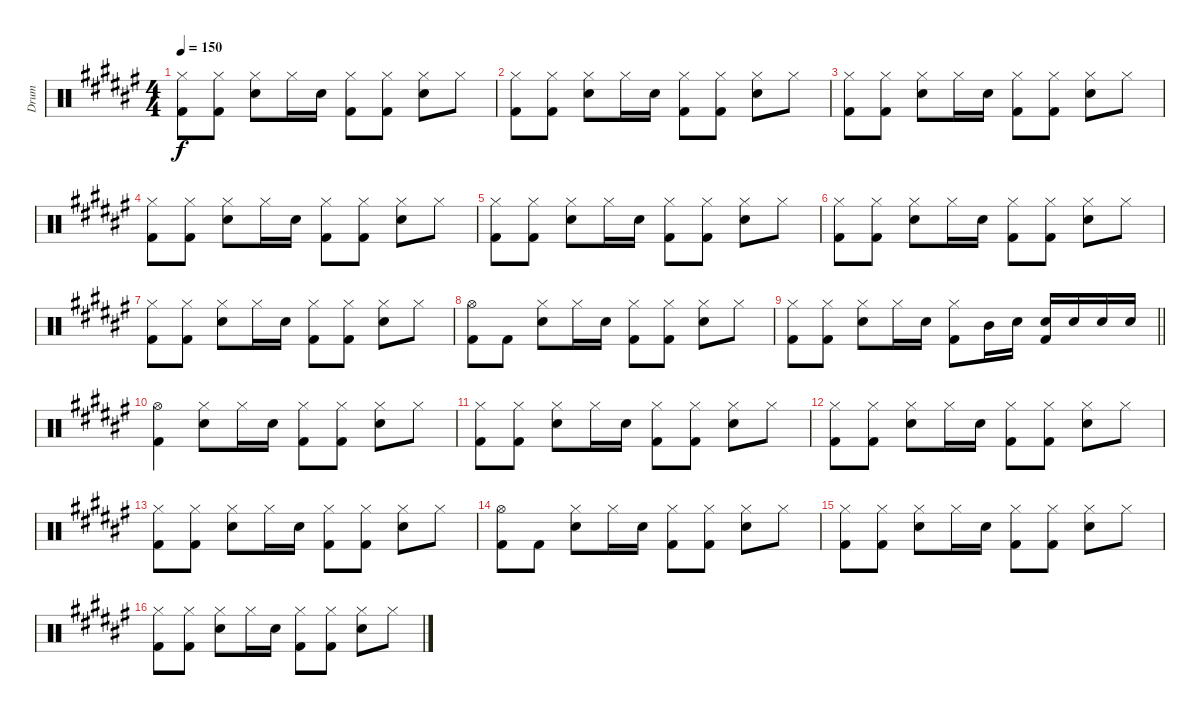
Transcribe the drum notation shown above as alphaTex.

\track ("Drum" "Drum") {instrument percussion}
\staff {score}
\articulation defaults
\ts (4 4)
\tempo 150
\clef neutral
\ks d#minor
("Hi-Hat (closed)" "Kick (hit) 2").8{dy f} ("Hi-Hat (closed)" "Kick (hit) 2").8 ("Hi-Hat (closed)" "Snare (hit) 2").8 "Hi-Hat (closed)".16 "Snare (hit) 2".16 ("Hi-Hat (closed)" "Kick (hit) 2").8 ("Hi-Hat (closed)" "Kick (hit) 2").8 ("Hi-Hat (closed)" "Snare (hit) 2").8 "Hi-Hat (closed)".8 |
("Hi-Hat (closed)" "Kick (hit) 2").8 ("Hi-Hat (closed)" "Kick (hit) 2").8 ("Hi-Hat (closed)" "Snare (hit) 2").8 "Hi-Hat (closed)".16 "Snare (hit) 2".16 ("Hi-Hat (closed)" "Kick (hit) 2").8 ("Hi-Hat (closed)" "Kick (hit) 2").8 ("Hi-Hat (closed)" "Snare (hit) 2").8 "Hi-Hat (closed)".8 |
("Hi-Hat (closed)" "Kick (hit) 2").8 ("Hi-Hat (closed)" "Kick (hit) 2").8 ("Hi-Hat (closed)" "Snare (hit) 2").8 "Hi-Hat (closed)".16 "Snare (hit) 2".16 ("Hi-Hat (closed)" "Kick (hit) 2").8 ("Hi-Hat (closed)" "Kick (hit) 2").8 ("Hi-Hat (closed)" "Snare (hit) 2").8 "Hi-Hat (closed)".8 |
("Hi-Hat (closed)" "Kick (hit) 2").8 ("Hi-Hat (closed)" "Kick (hit) 2").8 ("Hi-Hat (closed)" "Snare (hit) 2").8 "Hi-Hat (closed)".16 "Snare (hit) 2".16 ("Hi-Hat (closed)" "Kick (hit) 2").8 ("Hi-Hat (closed)" "Kick (hit) 2").8 ("Hi-Hat (closed)" "Snare (hit) 2").8 "Hi-Hat (closed)".8 |
("Hi-Hat (closed)" "Kick (hit) 2").8 ("Hi-Hat (closed)" "Kick (hit) 2").8 ("Hi-Hat (closed)" "Snare (hit) 2").8 "Hi-Hat (closed)".16 "Snare (hit) 2".16 ("Hi-Hat (closed)" "Kick (hit) 2").8 ("Hi-Hat (closed)" "Kick (hit) 2").8 ("Hi-Hat (closed)" "Snare (hit) 2").8 "Hi-Hat (closed)".8 |
("Hi-Hat (closed)" "Kick (hit) 2").8 ("Hi-Hat (closed)" "Kick (hit) 2").8 ("Hi-Hat (closed)" "Snare (hit) 2").8 "Hi-Hat (closed)".16 "Snare (hit) 2".16 ("Hi-Hat (closed)" "Kick (hit) 2").8 ("Hi-Hat (closed)" "Kick (hit) 2").8 ("Hi-Hat (closed)" "Snare (hit) 2").8 "Hi-Hat (closed)".8 |
("Hi-Hat (closed)" "Kick (hit) 2").8 ("Hi-Hat (closed)" "Kick (hit) 2").8 ("Hi-Hat (closed)" "Snare (hit) 2").8 "Hi-Hat (closed)".16 "Snare (hit) 2".16 ("Hi-Hat (closed)" "Kick (hit) 2").8 ("Hi-Hat (closed)" "Kick (hit) 2").8 ("Hi-Hat (closed)" "Snare (hit) 2").8 "Hi-Hat (closed)".8 |
("Hi-Hat (open)" "Kick (hit) 2").8 "Kick (hit) 2".8 ("Hi-Hat (closed)" "Snare (hit) 2").8 "Hi-Hat (closed)".16 "Snare (hit) 2".16 ("Hi-Hat (closed)" "Kick (hit) 2").8 ("Hi-Hat (closed)" "Kick (hit) 2").8 ("Hi-Hat (closed)" "Snare (hit) 2").8 "Hi-Hat (closed)".8 |
\barLineRight lightlight
("Hi-Hat (closed)" "Kick (hit) 2").8 ("Hi-Hat (closed)" "Kick (hit) 2").8 ("Hi-Hat (closed)" "Snare (hit) 2").8 "Hi-Hat (closed)".16 "Snare (hit) 2".16 ("Hi-Hat (closed)" "Kick (hit) 2").8 "Mid Tom (hit)".16 "Snare (hit) 2".16 ("Snare (hit) 2" "Kick (hit) 2").16 "Snare (hit) 2".16 "Snare (hit) 2".16 "Snare (hit) 2".16 |
("Hi-Hat (open)" "Kick (hit) 2").4 ("Hi-Hat (closed)" "Snare (hit) 2").8 "Hi-Hat (closed)".16 "Snare (hit) 2".16 ("Hi-Hat (closed)" "Kick (hit) 2").8 ("Hi-Hat (closed)" "Kick (hit) 2").8 ("Hi-Hat (closed)" "Snare (hit) 2").8 "Hi-Hat (closed)".8 |
("Hi-Hat (closed)" "Kick (hit) 2").8 ("Hi-Hat (closed)" "Kick (hit) 2").8 ("Hi-Hat (closed)" "Snare (hit) 2").8 "Hi-Hat (closed)".16 "Snare (hit) 2".16 ("Hi-Hat (closed)" "Kick (hit) 2").8 ("Hi-Hat (closed)" "Kick (hit) 2").8 ("Hi-Hat (closed)" "Snare (hit) 2").8 "Hi-Hat (closed)".8 |
("Hi-Hat (closed)" "Kick (hit) 2").8 ("Hi-Hat (closed)" "Kick (hit) 2").8 ("Hi-Hat (closed)" "Snare (hit) 2").8 "Hi-Hat (closed)".16 "Snare (hit) 2".16 ("Hi-Hat (closed)" "Kick (hit) 2").8 ("Hi-Hat (closed)" "Kick (hit) 2").8 ("Hi-Hat (closed)" "Snare (hit) 2").8 "Hi-Hat (closed)".8 |
("Hi-Hat (closed)" "Kick (hit) 2").8 ("Hi-Hat (closed)" "Kick (hit) 2").8 ("Hi-Hat (closed)" "Snare (hit) 2").8 "Hi-Hat (closed)".16 "Snare (hit) 2".16 ("Hi-Hat (closed)" "Kick (hit) 2").8 ("Hi-Hat (closed)" "Kick (hit) 2").8 ("Hi-Hat (closed)" "Snare (hit) 2").8 "Hi-Hat (closed)".8 |
("Hi-Hat (open)" "Kick (hit) 2").8 "Kick (hit) 2".8 ("Hi-Hat (closed)" "Snare (hit) 2").8 "Hi-Hat (closed)".16 "Snare (hit) 2".16 ("Hi-Hat (closed)" "Kick (hit) 2").8 ("Hi-Hat (closed)" "Kick (hit) 2").8 ("Hi-Hat (closed)" "Snare (hit) 2").8 "Hi-Hat (closed)".8 |
("Hi-Hat (closed)" "Kick (hit) 2").8 ("Hi-Hat (closed)" "Kick (hit) 2").8 ("Hi-Hat (closed)" "Snare (hit) 2").8 "Hi-Hat (closed)".16 "Snare (hit) 2".16 ("Hi-Hat (closed)" "Kick (hit) 2").8 ("Hi-Hat (closed)" "Kick (hit) 2").8 ("Hi-Hat (closed)" "Snare (hit) 2").8 "Hi-Hat (closed)".8 |
("Hi-Hat (closed)" "Kick (hit) 2").8 ("Hi-Hat (closed)" "Kick (hit) 2").8 ("Hi-Hat (closed)" "Snare (hit) 2").8 "Hi-Hat (closed)".16 "Snare (hit) 2".16 ("Hi-Hat (closed)" "Kick (hit) 2").8 ("Hi-Hat (closed)" "Kick (hit) 2").8 ("Hi-Hat (closed)" "Snare (hit) 2").8 "Hi-Hat (closed)".8
